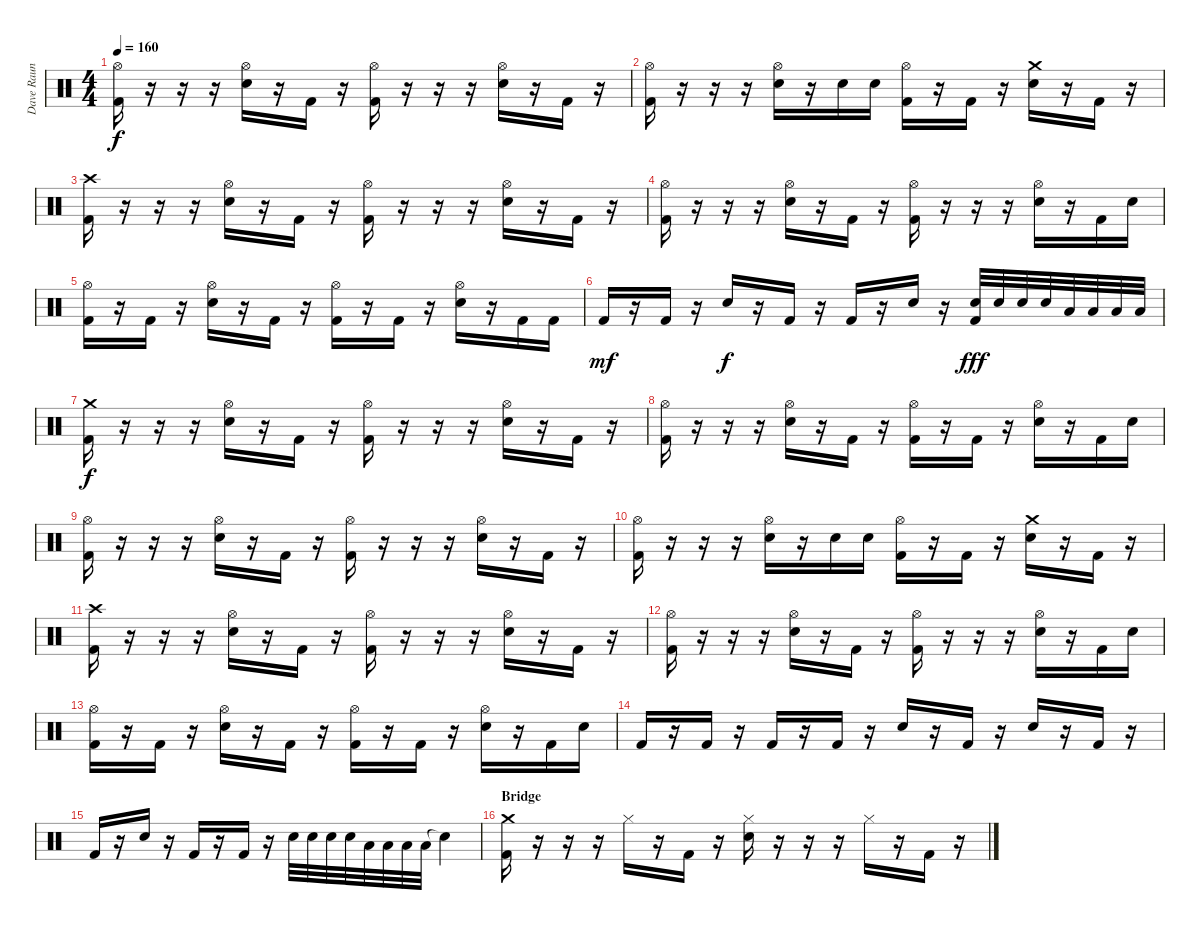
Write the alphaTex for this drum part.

\track ("Dave Raun" "Dave Raun") {instrument percussion}
\staff {score}
\articulation defaults
\ts (4 4)
\tempo 160
\clef neutral
\ks c
("Hi-Hat (open)" "Kick (hit) 2").16{dy f} r.16 r.16 r.16 ("Hi-Hat (open)" "Snare (hit) 2").16 r.16 "Kick (hit) 2".16 r.16 ("Hi-Hat (open)" "Kick (hit) 2").16 r.16 r.16 r.16 ("Hi-Hat (open)" "Snare (hit) 2").16 r.16 "Kick (hit) 2".16 r.16 |
("Hi-Hat (open)" "Kick (hit) 2").16 r.16 r.16 r.16 ("Hi-Hat (open)" "Snare (hit) 2").16 r.16 "Snare (hit) 2".16 "Snare (hit) 2".16 ("Hi-Hat (open)" "Kick (hit) 2").16 r.16 "Kick (hit) 2".16 r.16 ("Crash medium (hit)" "Snare (hit) 2").16 r.16 "Kick (hit) 2".16 r.16 |
("Crash high (hit)" "Kick (hit) 2").16 r.16 r.16 r.16 ("Hi-Hat (open)" "Snare (hit) 2").16 r.16 "Kick (hit) 2".16 r.16 ("Hi-Hat (open)" "Kick (hit) 2").16 r.16 r.16 r.16 ("Hi-Hat (open)" "Snare (hit) 2").16 r.16 "Kick (hit) 2".16 r.16 |
("Hi-Hat (open)" "Kick (hit) 2").16 r.16 r.16 r.16 ("Hi-Hat (open)" "Snare (hit) 2").16 r.16 "Kick (hit) 2".16 r.16 ("Hi-Hat (open)" "Kick (hit) 2").16 r.16 r.16 r.16 ("Hi-Hat (open)" "Snare (hit) 2").16 r.16 "Kick (hit) 2".16 "Snare (hit) 2".16 |
("Hi-Hat (open)" "Kick (hit) 2").16 r.16 "Kick (hit) 2".16 r.16 ("Hi-Hat (open)" "Snare (hit) 2").16 r.16 "Kick (hit) 2".16 r.16 ("Hi-Hat (open)" "Kick (hit) 2").16 r.16 "Kick (hit) 2".16 r.16 ("Hi-Hat (open)" "Snare (hit) 2").16 r.16 "Kick (hit) 2".16 "Kick (hit) 2".16 |
"Kick (hit) 2".16{dy mf} r.16 "Kick (hit) 2".16 r.16 "Snare (hit) 2".16{dy f} r.16 "Kick (hit) 2".16 r.16 "Kick (hit) 2".16 r.16 "Snare (hit) 2".16 r.16 ("Snare (hit) 2" "Kick (hit) 2").32{dy fff} "Snare (hit) 2".32 "Snare (hit) 2".32 "Snare (hit) 2".32 "Low Tom (hit)".32 "Low Tom (hit)".32 "Low Tom (hit)".32 "Low Tom (hit)".32 |
("Crash medium (hit)" "Kick (hit) 2").16{dy f} r.16 r.16 r.16 ("Hi-Hat (open)" "Snare (hit) 2").16 r.16 "Kick (hit) 2".16 r.16 ("Hi-Hat (open)" "Kick (hit) 2").16 r.16 r.16 r.16 ("Hi-Hat (open)" "Snare (hit) 2").16 r.16 "Kick (hit) 2".16 r.16 |
("Hi-Hat (open)" "Kick (hit) 2").16 r.16 r.16 r.16 ("Hi-Hat (open)" "Snare (hit) 2").16 r.16 "Kick (hit) 2".16 r.16 ("Hi-Hat (open)" "Kick (hit) 2").16 r.16 "Kick (hit) 2".16 r.16 ("Hi-Hat (open)" "Snare (hit) 2").16 r.16 "Kick (hit) 2".16 "Snare (hit) 2".16 |
("Hi-Hat (open)" "Kick (hit) 2").16 r.16 r.16 r.16 ("Hi-Hat (open)" "Snare (hit) 2").16 r.16 "Kick (hit) 2".16 r.16 ("Hi-Hat (open)" "Kick (hit) 2").16 r.16 r.16 r.16 ("Hi-Hat (open)" "Snare (hit) 2").16 r.16 "Kick (hit) 2".16 r.16 |
("Hi-Hat (open)" "Kick (hit) 2").16 r.16 r.16 r.16 ("Hi-Hat (open)" "Snare (hit) 2").16 r.16 "Snare (hit) 2".16 "Snare (hit) 2".16 ("Hi-Hat (open)" "Kick (hit) 2").16 r.16 "Kick (hit) 2".16 r.16 ("Crash medium (hit)" "Snare (hit) 2").16 r.16 "Kick (hit) 2".16 r.16 |
("Crash high (hit)" "Kick (hit) 2").16 r.16 r.16 r.16 ("Hi-Hat (open)" "Snare (hit) 2").16 r.16 "Kick (hit) 2".16 r.16 ("Hi-Hat (open)" "Kick (hit) 2").16 r.16 r.16 r.16 ("Hi-Hat (open)" "Snare (hit) 2").16 r.16 "Kick (hit) 2".16 r.16 |
("Hi-Hat (open)" "Kick (hit) 2").16 r.16 r.16 r.16 ("Hi-Hat (open)" "Snare (hit) 2").16 r.16 "Kick (hit) 2".16 r.16 ("Hi-Hat (open)" "Kick (hit) 2").16 r.16 r.16 r.16 ("Hi-Hat (open)" "Snare (hit) 2").16 r.16 "Kick (hit) 2".16 "Snare (hit) 2".16 |
("Hi-Hat (open)" "Kick (hit) 2").16 r.16 "Kick (hit) 2".16 r.16 ("Hi-Hat (open)" "Snare (hit) 2").16 r.16 "Kick (hit) 2".16 r.16 ("Hi-Hat (open)" "Kick (hit) 2").16 r.16 "Kick (hit) 2".16 r.16 ("Hi-Hat (open)" "Snare (hit) 2").16 r.16 "Kick (hit) 2".16 "Snare (hit) 2".16 |
"Kick (hit) 2".16 r.16 "Kick (hit) 2".16 r.16 "Kick (hit) 2".16 r.16 "Kick (hit) 2".16 r.16 "Snare (hit) 2".16 r.16 "Kick (hit) 2".16 r.16 "Snare (hit) 2".16 r.16 "Kick (hit) 2".16 r.16 |
"Kick (hit) 2".16 r.16 "Snare (hit) 2".16 r.16 "Kick (hit) 2".16 r.16 "Kick (hit) 2".16 r.16 "Snare (hit) 2".32 "Snare (hit) 2".32 "Snare (hit) 2".32 "Snare (hit) 2".32 "Low Tom (hit)".32 "Low Tom (hit)".32 "Low Tom (hit)".32 "Low Tom (hit)".32 "Snare (hit)"{t}.4 |
\section ("" "Bridge")
("Crash medium (hit)" "Kick (hit) 2").16 r.16 r.16 r.16 "Hi-Hat (closed)".16 r.16 "Kick (hit) 2".16 r.16 ("Hi-Hat (closed)" "Snare (hit) 2").16 r.16 r.16 r.16 "Hi-Hat (closed)".16 r.16 "Kick (hit) 2".16 r.16
